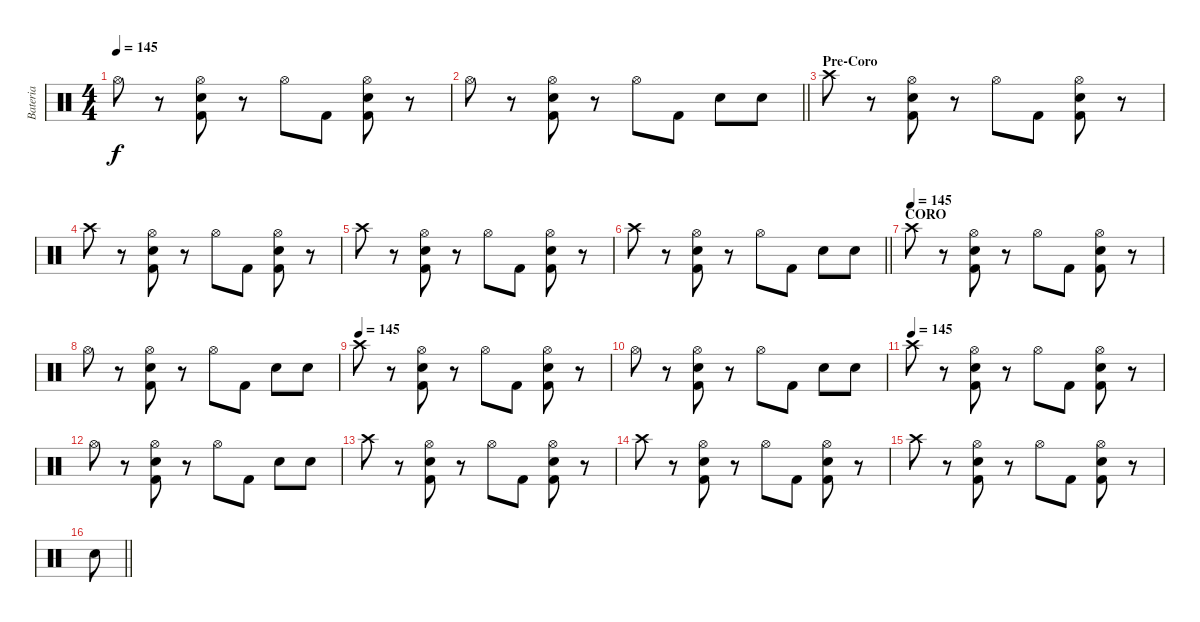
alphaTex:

\track ("Bateria" "Bateria") {instrument percussion}
\staff {score}
\articulation defaults
\ts (4 4)
\tempo 145
\clef neutral
\ks c "Hi-Hat (open)".8{dy f}
r.8 ("Hi-Hat (open)" "Electric Snare (hit)" "Kick (hit) 2").8 r.8 "Hi-Hat (open)".8 "Kick (hit) 2".8 ("Hi-Hat (open)" "Electric Snare (hit)" "Kick (hit) 2").8 r.8 |
\barLineRight lightlight "Hi-Hat (open)".8
r.8 ("Hi-Hat (open)" "Electric Snare (hit)" "Kick (hit) 2").8 r.8 "Hi-Hat (open)".8 "Kick (hit) 2".8 "Electric Snare (hit)".8 "Electric Snare (hit)".8 |
\section ("" "Pre-Coro")
"Crash high (hit)".8 r.8 ("Hi-Hat (open)" "Electric Snare (hit)" "Kick (hit) 2").8 r.8 "Hi-Hat (open)".8 "Kick (hit) 2".8 ("Hi-Hat (open)" "Electric Snare (hit)" "Kick (hit) 2").8 r.8 |
"Crash high (hit)".8 r.8 ("Hi-Hat (open)" "Electric Snare (hit)" "Kick (hit) 2").8 r.8 "Hi-Hat (open)".8 "Kick (hit) 2".8 ("Hi-Hat (open)" "Electric Snare (hit)" "Kick (hit) 2").8 r.8 |
"Crash high (hit)".8 r.8 ("Hi-Hat (open)" "Electric Snare (hit)" "Kick (hit) 2").8 r.8 "Hi-Hat (open)".8 "Kick (hit) 2".8 ("Hi-Hat (open)" "Electric Snare (hit)" "Kick (hit) 2").8 r.8 |
\barLineRight lightlight "Crash high (hit)".8
r.8 ("Hi-Hat (open)" "Electric Snare (hit)" "Kick (hit) 2").8 r.8 "Hi-Hat (open)".8 "Kick (hit) 2".8 "Electric Snare (hit)".8 "Electric Snare (hit)".8 |
\section ("" "CORO")
\tempo (145)
"Crash high (hit)".8 r.8 ("Hi-Hat (open)" "Electric Snare (hit)" "Kick (hit) 2").8 r.8 "Hi-Hat (open)".8 "Kick (hit) 2".8 ("Hi-Hat (open)" "Electric Snare (hit)" "Kick (hit) 2").8 r.8 |
"Hi-Hat (open)".8 r.8 ("Hi-Hat (open)" "Electric Snare (hit)" "Kick (hit) 2").8 r.8 "Hi-Hat (open)".8 "Kick (hit) 2".8 "Electric Snare (hit)".8 "Electric Snare (hit)".8 |
\tempo (145)
"Crash high (hit)".8 r.8 ("Hi-Hat (open)" "Electric Snare (hit)" "Kick (hit) 2").8 r.8 "Hi-Hat (open)".8 "Kick (hit) 2".8 ("Hi-Hat (open)" "Electric Snare (hit)" "Kick (hit) 2").8 r.8 |
"Hi-Hat (open)".8 r.8 ("Hi-Hat (open)" "Electric Snare (hit)" "Kick (hit) 2").8 r.8 "Hi-Hat (open)".8 "Kick (hit) 2".8 "Electric Snare (hit)".8 "Electric Snare (hit)".8 |
\tempo (145)
"Crash high (hit)".8 r.8 ("Hi-Hat (open)" "Electric Snare (hit)" "Kick (hit) 2").8 r.8 "Hi-Hat (open)".8 "Kick (hit) 2".8 ("Hi-Hat (open)" "Electric Snare (hit)" "Kick (hit) 2").8 r.8 |
"Hi-Hat (open)".8 r.8 ("Hi-Hat (open)" "Electric Snare (hit)" "Kick (hit) 2").8 r.8 "Hi-Hat (open)".8 "Kick (hit) 2".8 "Electric Snare (hit)".8 "Electric Snare (hit)".8 |
"Crash high (hit)".8 r.8 ("Hi-Hat (open)" "Electric Snare (hit)" "Kick (hit) 2").8 r.8 "Hi-Hat (open)".8 "Kick (hit) 2".8 ("Hi-Hat (open)" "Electric Snare (hit)" "Kick (hit) 2").8 r.8 |
"Crash high (hit)".8 r.8 ("Hi-Hat (open)" "Electric Snare (hit)" "Kick (hit) 2").8 r.8 "Hi-Hat (open)".8 "Kick (hit) 2".8 ("Hi-Hat (open)" "Electric Snare (hit)" "Kick (hit) 2").8 r.8 |
"Crash high (hit)".8 r.8 ("Hi-Hat (open)" "Electric Snare (hit)" "Kick (hit) 2").8 r.8 "Hi-Hat (open)".8 "Kick (hit) 2".8 ("Hi-Hat (open)" "Electric Snare (hit)" "Kick (hit) 2").8 r.8 |
\barLineRight lightlight "Electric Snare (hit)".8
